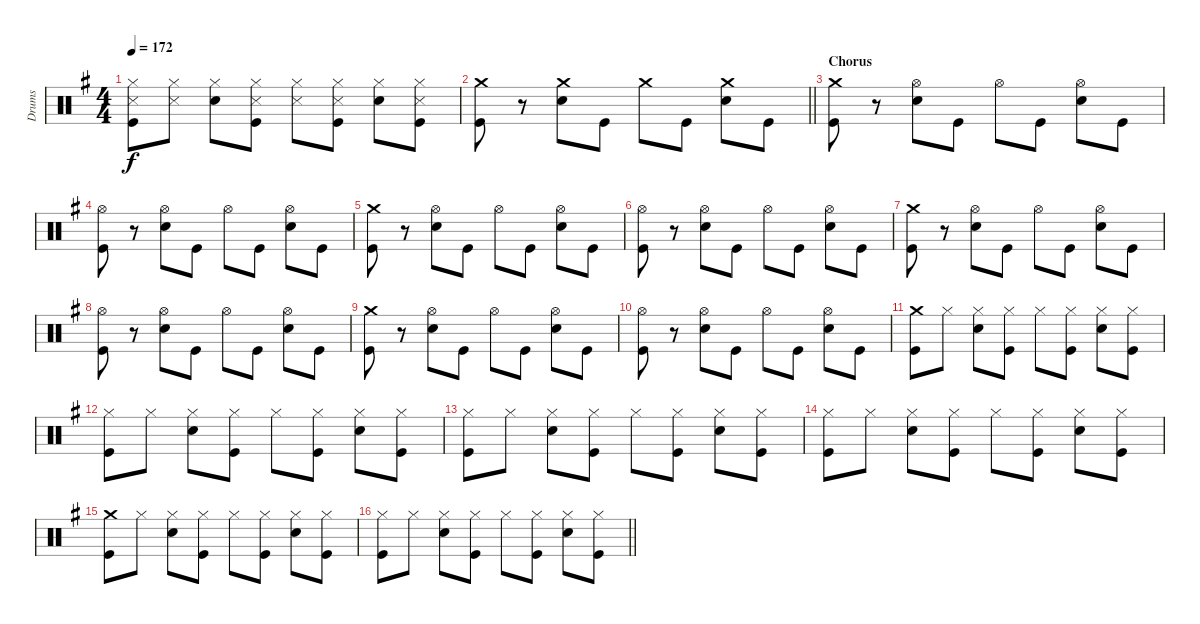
\track ("Drums" "Drums") {instrument percussion}
\staff {score}
\articulation defaults
\ts (4 4)
\tempo 172
\clef neutral
\ks g
("Hi-Hat (closed)" "Snare (side stick) 3" "Kick (hit)").8{dy f} ("Hi-Hat (closed)" "Snare (side stick) 3").8 ("Hi-Hat (closed)" "Snare (hit) 2").8 ("Hi-Hat (closed)" "Snare (side stick) 3" "Kick (hit)").8 ("Hi-Hat (closed)" "Snare (side stick) 3").8 ("Hi-Hat (closed)" "Snare (side stick) 3" "Kick (hit)").8 ("Hi-Hat (closed)" "Snare (hit) 2").8 ("Hi-Hat (closed)" "Snare (side stick) 3" "Kick (hit)").8 |
\barLineRight lightlight
("Crash medium (hit)" "Kick (hit)").8 r.8 ("Crash medium (hit)" "Snare (hit) 2").8 "Kick (hit)".8 "Crash medium (hit)".8 "Kick (hit)".8 ("Crash medium (hit)" "Snare (hit) 2").8 "Kick (hit)".8 |
\section ("" "Chorus")
("Crash medium (hit)" "Kick (hit)").8 r.8 ("Hi-Hat (open)" "Snare (hit) 2").8 "Kick (hit)".8 "Hi-Hat (open)".8 "Kick (hit)".8 ("Hi-Hat (open)" "Snare (hit) 2").8 "Kick (hit)".8 |
("Hi-Hat (open)" "Kick (hit)").8 r.8 ("Hi-Hat (open)" "Snare (hit) 2").8 "Kick (hit)".8 "Hi-Hat (open)".8 "Kick (hit)".8 ("Hi-Hat (open)" "Snare (hit) 2").8 "Kick (hit)".8 |
("Crash medium (hit)" "Kick (hit)").8 r.8 ("Hi-Hat (open)" "Snare (hit) 2").8 "Kick (hit)".8 "Hi-Hat (open)".8 "Kick (hit)".8 ("Hi-Hat (open)" "Snare (hit) 2").8 "Kick (hit)".8 |
("Hi-Hat (open)" "Kick (hit)").8 r.8 ("Hi-Hat (open)" "Snare (hit) 2").8 "Kick (hit)".8 "Hi-Hat (open)".8 "Kick (hit)".8 ("Hi-Hat (open)" "Snare (hit) 2").8 "Kick (hit)".8 |
("Crash medium (hit)" "Kick (hit)").8 r.8 ("Hi-Hat (open)" "Snare (hit) 2").8 "Kick (hit)".8 "Hi-Hat (open)".8 "Kick (hit)".8 ("Hi-Hat (open)" "Snare (hit) 2").8 "Kick (hit)".8 |
("Hi-Hat (open)" "Kick (hit)").8 r.8 ("Hi-Hat (open)" "Snare (hit) 2").8 "Kick (hit)".8 "Hi-Hat (open)".8 "Kick (hit)".8 ("Hi-Hat (open)" "Snare (hit) 2").8 "Kick (hit)".8 |
("Crash medium (hit)" "Kick (hit)").8 r.8 ("Hi-Hat (open)" "Snare (hit) 2").8 "Kick (hit)".8 "Hi-Hat (open)".8 "Kick (hit)".8 ("Hi-Hat (open)" "Snare (hit) 2").8 "Kick (hit)".8 |
("Hi-Hat (open)" "Kick (hit)").8 r.8 ("Hi-Hat (open)" "Snare (hit) 2").8 "Kick (hit)".8 "Hi-Hat (open)".8 "Kick (hit)".8 ("Hi-Hat (open)" "Snare (hit) 2").8 "Kick (hit)".8 |
("Crash medium (hit)" "Kick (hit)").8 "Hi-Hat (closed)".8 ("Hi-Hat (closed)" "Snare (hit) 2").8 ("Hi-Hat (closed)" "Kick (hit)").8 "Hi-Hat (closed)".8 ("Hi-Hat (closed)" "Kick (hit)").8 ("Hi-Hat (closed)" "Snare (hit) 2").8 ("Hi-Hat (closed)" "Kick (hit)").8 |
("Hi-Hat (closed)" "Kick (hit)").8 "Hi-Hat (closed)".8 ("Hi-Hat (closed)" "Snare (hit) 2").8 ("Hi-Hat (closed)" "Kick (hit)").8 "Hi-Hat (closed)".8 ("Hi-Hat (closed)" "Kick (hit)").8 ("Hi-Hat (closed)" "Snare (hit) 2").8 ("Hi-Hat (closed)" "Kick (hit)").8 |
("Hi-Hat (closed)" "Kick (hit)").8 "Hi-Hat (closed)".8 ("Hi-Hat (closed)" "Snare (hit) 2").8 ("Hi-Hat (closed)" "Kick (hit)").8 "Hi-Hat (closed)".8 ("Hi-Hat (closed)" "Kick (hit)").8 ("Hi-Hat (closed)" "Snare (hit) 2").8 ("Hi-Hat (closed)" "Kick (hit)").8 |
("Hi-Hat (closed)" "Kick (hit)").8 "Hi-Hat (closed)".8 ("Hi-Hat (closed)" "Snare (hit) 2").8 ("Hi-Hat (closed)" "Kick (hit)").8 "Hi-Hat (closed)".8 ("Hi-Hat (closed)" "Kick (hit)").8 ("Hi-Hat (closed)" "Snare (hit) 2").8 ("Hi-Hat (closed)" "Kick (hit)").8 |
("Crash medium (hit)" "Kick (hit)").8 "Hi-Hat (closed)".8 ("Hi-Hat (closed)" "Snare (hit) 2").8 ("Hi-Hat (closed)" "Kick (hit)").8 "Hi-Hat (closed)".8 ("Hi-Hat (closed)" "Kick (hit)").8 ("Hi-Hat (closed)" "Snare (hit) 2").8 ("Hi-Hat (closed)" "Kick (hit)").8 |
\barLineRight lightlight
("Hi-Hat (closed)" "Kick (hit)").8 "Hi-Hat (closed)".8 ("Hi-Hat (closed)" "Snare (hit) 2").8 ("Hi-Hat (closed)" "Kick (hit)").8 "Hi-Hat (closed)".8 ("Hi-Hat (closed)" "Kick (hit)").8 ("Hi-Hat (closed)" "Snare (hit) 2").8 ("Hi-Hat (closed)" "Kick (hit)").8
